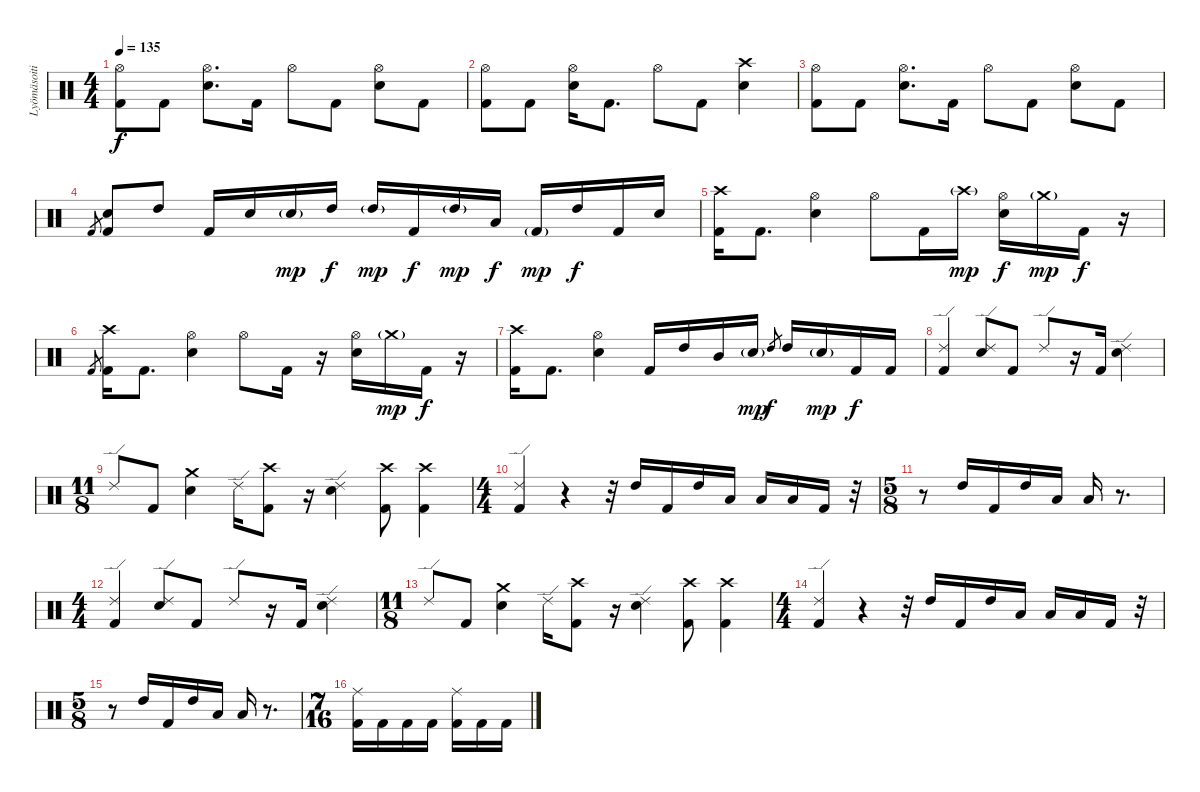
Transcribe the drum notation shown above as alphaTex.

\track ("Lyömäsoitin" "Lyömäsoiti") {instrument percussion}
\staff {score}
\articulation defaults
\ts (4 4)
\tempo 135
\clef neutral
\ks c
("Hi-Hat (open)" "Kick (hit) 2").8{dy f} "Kick (hit) 2".8 ("Hi-Hat (open)" "Electric Snare (hit)").8{d} "Kick (hit) 2".16 "Hi-Hat (open)".8 "Kick (hit) 2".8 ("Hi-Hat (open)" "Electric Snare (hit)").8 "Kick (hit) 2".8 |
("Hi-Hat (open)" "Kick (hit) 2").8 "Kick (hit) 2".8 ("Hi-Hat (open)" "Electric Snare (hit)").16 "Kick (hit) 2".8{d} "Hi-Hat (open)".8 "Kick (hit) 2".8 ("Crash high (hit)" "Electric Snare (hit)").4 |
("Hi-Hat (open)" "Kick (hit) 2").8 "Kick (hit) 2".8 ("Hi-Hat (open)" "Electric Snare (hit)").8{d} "Kick (hit) 2".16 "Hi-Hat (open)".8 "Kick (hit) 2".8 ("Hi-Hat (open)" "Electric Snare (hit)").8 "Kick (hit) 2".8 |
"Kick (hit) 2".8{gr} ("Electric Snare (hit)" "Kick (hit) 2").8 "High Tom (hit)".8 "Kick (hit) 2".16 "Electric Snare (hit)".16 "Electric Snare (hit)"{g}.16{dy mp} "High Tom (hit)".16{dy f} "High Tom (hit)"{g}.16{dy mp} "Kick (hit) 2".16{dy f} "High Tom (hit)"{g}.16{dy mp} "Low Tom (hit)".16{dy f} "Kick (hit) 2"{g}.16{dy mp} "High Tom (hit)".16{dy f} "Kick (hit) 2".16 "Electric Snare (hit)".16 |
("Crash high (hit)" "Kick (hit) 2").16 "Kick (hit) 2".8{d} ("Hi-Hat (open)" "Electric Snare (hit)").4 "Hi-Hat (open)".8 "Kick (hit) 2".16 "Crash high (hit)"{g}.16{dy mp} ("Hi-Hat (open)" "Electric Snare (hit)").16{dy f} "Crash medium (hit)"{g}.16{dy mp} "Kick (hit) 2".16{dy f} r.16 |
"Kick (hit) 2".8{gr} ("Crash high (hit)" "Kick (hit) 2").16 "Kick (hit) 2".8{d} ("Hi-Hat (open)" "Electric Snare (hit)").4 "Hi-Hat (open)".8 "Kick (hit) 2".16 r.16 ("Hi-Hat (open)" "Electric Snare (hit)").16 "Crash medium (hit)"{g}.16{dy mp} "Kick (hit) 2".16{dy f} r.16 |
("Crash high (hit)" "Kick (hit) 2").16 "Kick (hit) 2".8{d} ("Hi-Hat (open)" "Electric Snare (hit)").4 "Kick (hit) 2".16 "High Tom (hit)".16 "Mid Tom (hit)".16 "Electric Snare (hit)"{g}.16{dy mp} "High Tom (hit)".8{gr dy f} "High Tom (hit)".16 "Electric Snare (hit)"{g}.16{dy mp} "Kick (hit) 2".16{dy f} "Kick (hit) 2".16 |
("Ride (edge) 2" "Kick (hit) 2").4 ("Ride (edge) 2" "Electric Snare (hit)").8 "Kick (hit) 2".8 "Ride (edge) 2".8 r.16 "Kick (hit) 2".16 ("Ride (edge) 2" "Electric Snare (hit)").4 |
\ts (11 8)
"Ride (edge) 2".8 "Kick (hit) 2".8 ("Crash medium (hit)" "Electric Snare (hit)").4 "Ride (edge) 2".16 ("Crash high (hit)" "Kick (hit) 2").8 r.16 ("Electric Snare (hit)" "Ride (edge) 2").4 ("Crash high (hit)" "Kick (hit) 2").8 ("Crash high (hit)" "Kick (hit) 2").4 |
\ts (4 4)
("Ride (edge) 2" "Kick (hit) 2").4 r.4 r.32 "High Tom (hit)".16 "Kick (hit) 2".16 "High Tom (hit)".16 "Low Tom (hit)".16 "Low Tom (hit)".16 "Low Floor Tom (hit)".16 "Kick (hit) 2".16 r.32 |
\ts (5 8)
r.8 "High Tom (hit)".16 "Kick (hit) 2".16 "High Tom (hit)".16 "Low Tom (hit)".16 "Low Floor Tom (hit)".16 r.8{d} |
\ts (4 4)
("Ride (edge) 2" "Kick (hit) 2").4 ("Ride (edge) 2" "Electric Snare (hit)").8 "Kick (hit) 2".8 "Ride (edge) 2".8 r.16 "Kick (hit) 2".16 ("Ride (edge) 2" "Electric Snare (hit)").4 |
\ts (11 8)
"Ride (edge) 2".8 "Kick (hit) 2".8 ("Crash medium (hit)" "Electric Snare (hit)").4 "Ride (edge) 2".16 ("Crash high (hit)" "Kick (hit) 2").8 r.16 ("Electric Snare (hit)" "Ride (edge) 2").4 ("Crash high (hit)" "Kick (hit) 2").8 ("Crash high (hit)" "Kick (hit) 2").4 |
\ts (4 4)
("Ride (edge) 2" "Kick (hit) 2").4 r.4 r.32 "High Tom (hit)".16 "Kick (hit) 2".16 "High Tom (hit)".16 "Low Tom (hit)".16 "Low Tom (hit)".16 "Low Floor Tom (hit)".16 "Kick (hit) 2".16 r.32 |
\ts (5 8)
r.8 "High Tom (hit)".16 "Kick (hit) 2".16 "High Tom (hit)".16 "Low Tom (hit)".16 "Low Floor Tom (hit)".16 r.8{d} |
\ts (7 16)
("Ride (middle)" "Kick (hit) 2").16 "Kick (hit) 2".16 "Kick (hit) 2".16 "Kick (hit) 2".16 ("Ride (middle)" "Kick (hit) 2").16 "Kick (hit) 2".16 "Kick (hit) 2".16
